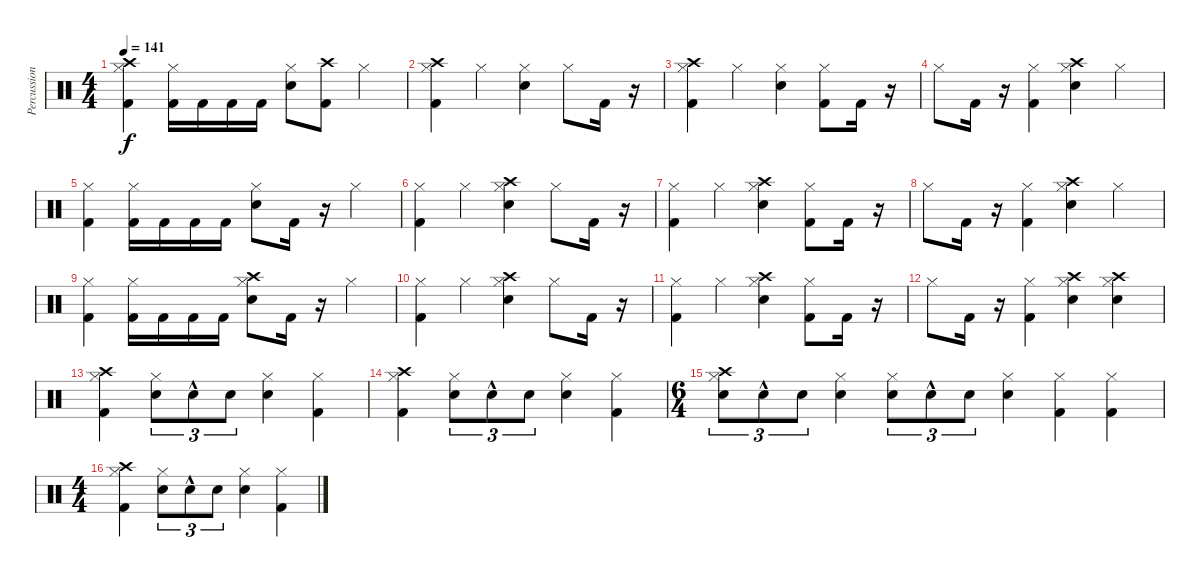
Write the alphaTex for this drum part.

\track ("Percussion" "Percussion") {instrument percussion}
\staff {score}
\articulation defaults
\ts (4 4)
\tempo 141
\clef neutral
\ks c
("Kick (hit) 2" "Hi-Hat (closed)" "Crash high (hit)").4{dy f} ("Kick (hit) 2" "Hi-Hat (closed)").16 "Kick (hit) 2".16 "Kick (hit) 2".16 "Kick (hit) 2".16 ("Snare (hit) 2" "Hi-Hat (closed)").8 ("Kick (hit) 2" "Crash high (hit)").8 "Hi-Hat (closed)".4 |
("Kick (hit) 2" "Hi-Hat (closed)" "Crash high (hit)").4 "Hi-Hat (closed)".4 ("Snare (hit) 2" "Hi-Hat (closed)").4 "Hi-Hat (closed)".8 "Kick (hit) 2".16 r.16 |
("Kick (hit) 2" "Hi-Hat (closed)" "Crash high (hit)").4 "Hi-Hat (closed)".4 ("Snare (hit) 2" "Hi-Hat (closed)").4 ("Kick (hit) 2" "Hi-Hat (closed)").8 "Kick (hit) 2".16 r.16 |
"Hi-Hat (closed)".8 "Kick (hit) 2".16 r.16 ("Kick (hit) 2" "Hi-Hat (closed)").4 ("Snare (hit) 2" "Hi-Hat (closed)" "Crash high (hit)").4 "Hi-Hat (closed)".4 |
("Kick (hit) 2" "Hi-Hat (closed)").4 ("Kick (hit) 2" "Hi-Hat (closed)").16 "Kick (hit) 2".16 "Kick (hit) 2".16 "Kick (hit) 2".16 ("Snare (hit) 2" "Hi-Hat (closed)").8 "Kick (hit) 2".16 r.16 "Hi-Hat (closed)".4 |
("Kick (hit) 2" "Hi-Hat (closed)").4 "Hi-Hat (closed)".4 ("Snare (hit) 2" "Hi-Hat (closed)" "Crash high (hit)").4 "Hi-Hat (closed)".8 "Kick (hit) 2".16 r.16 |
("Kick (hit) 2" "Hi-Hat (closed)").4 "Hi-Hat (closed)".4 ("Snare (hit) 2" "Hi-Hat (closed)" "Crash high (hit)").4 ("Kick (hit) 2" "Hi-Hat (closed)").8 "Kick (hit) 2".16 r.16 |
"Hi-Hat (closed)".8 "Kick (hit) 2".16 r.16 ("Kick (hit) 2" "Hi-Hat (closed)").4 ("Snare (hit) 2" "Hi-Hat (closed)" "Crash high (hit)").4 "Hi-Hat (closed)".4 |
("Kick (hit) 2" "Hi-Hat (closed)").4 ("Kick (hit) 2" "Hi-Hat (closed)").16 "Kick (hit) 2".16 "Kick (hit) 2".16 "Kick (hit) 2".16 ("Snare (hit) 2" "Hi-Hat (closed)" "Crash high (hit)").8 "Kick (hit) 2".16 r.16 "Hi-Hat (closed)".4 |
("Kick (hit) 2" "Hi-Hat (closed)").4 "Hi-Hat (closed)".4 ("Snare (hit) 2" "Hi-Hat (closed)" "Crash high (hit)").4 "Hi-Hat (closed)".8 "Kick (hit) 2".16 r.16 |
("Kick (hit) 2" "Hi-Hat (closed)").4 "Hi-Hat (closed)".4 ("Snare (hit) 2" "Hi-Hat (closed)" "Crash high (hit)").4 ("Kick (hit) 2" "Hi-Hat (closed)").8 "Kick (hit) 2".16 r.16 |
"Hi-Hat (closed)".8 "Kick (hit) 2".16 r.16 ("Kick (hit) 2" "Hi-Hat (closed)").4 ("Snare (hit) 2" "Hi-Hat (closed)" "Crash high (hit)").4 ("Snare (hit) 2" "Hi-Hat (closed)" "Crash high (hit)").4 |
("Kick (hit) 2" "Hi-Hat (closed)" "Crash high (hit)").4 ("Snare (hit) 2" "Hi-Hat (closed)").8{tu (3 2)} "Snare (hit) 2"{hac}.8{tu (3 2)} "Snare (hit) 2".8{tu (3 2)} ("Snare (hit) 2" "Hi-Hat (closed)").4 ("Kick (hit) 2" "Hi-Hat (closed)").4 |
("Kick (hit) 2" "Hi-Hat (closed)" "Crash high (hit)").4 ("Snare (hit) 2" "Hi-Hat (closed)").8{tu (3 2)} "Snare (hit) 2"{hac}.8{tu (3 2)} "Snare (hit) 2".8{tu (3 2)} ("Snare (hit) 2" "Hi-Hat (closed)").4 ("Kick (hit) 2" "Hi-Hat (closed)").4 |
\ts (6 4)
("Snare (hit) 2" "Hi-Hat (closed)" "Crash high (hit)").8{tu (3 2)} "Snare (hit) 2"{hac}.8{tu (3 2)} "Snare (hit) 2".8{tu (3 2)} ("Snare (hit) 2" "Hi-Hat (closed)").4 ("Snare (hit) 2" "Hi-Hat (closed)").8{tu (3 2)} "Snare (hit) 2"{hac}.8{tu (3 2)} "Snare (hit) 2".8{tu (3 2)} ("Snare (hit) 2" "Hi-Hat (closed)").4 ("Kick (hit) 2" "Hi-Hat (closed)").4 ("Kick (hit) 2" "Hi-Hat (closed)").4 |
\ts (4 4)
("Kick (hit) 2" "Hi-Hat (closed)" "Crash high (hit)").4 ("Snare (hit) 2" "Hi-Hat (closed)").8{tu (3 2)} "Snare (hit) 2"{hac}.8{tu (3 2)} "Snare (hit) 2".8{tu (3 2)} ("Snare (hit) 2" "Hi-Hat (closed)").4 ("Kick (hit) 2" "Hi-Hat (closed)").4
